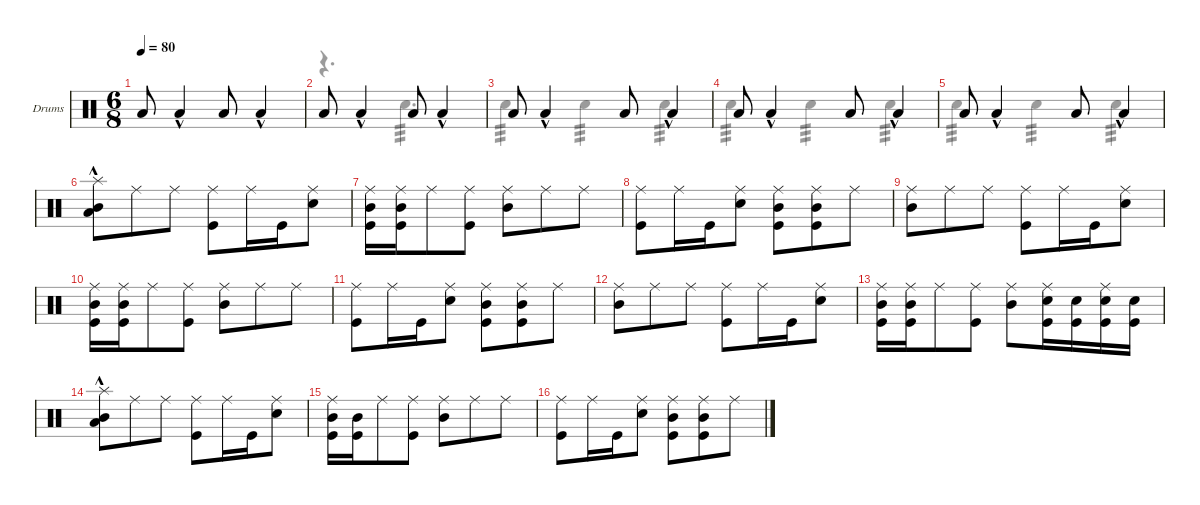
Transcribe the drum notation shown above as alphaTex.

\defaultSystemsLayout 4
\hideDynamics
\bracketExtendMode groupsimilarinstruments
\firstSystemTrackNameOrientation horizontal
\otherSystemsTrackNameOrientation horizontal
\track ("Drumkit" "Drums") {instrument percussion}
\staff {score}
\articulation defaults
\voice
\ts (6 8)
\tempo 80
\clef neutral
\ks c "Low Tom (hit)".8{dy mp} "Low Tom (hit)"{hac}.4 "Low Tom (hit)".8 "Low Tom (hit)"{hac}.4
|
"Low Tom (hit)".8 "Low Tom (hit)"{hac}.4 "Low Tom (hit)".8 "Low Tom (hit)"{hac}.4 |
"Low Tom (hit)".8 "Low Tom (hit)"{hac}.4 "Low Tom (hit)".8 "Low Tom (hit)"{hac}.4 |
"Low Tom (hit)".8 "Low Tom (hit)"{hac}.4 "Low Tom (hit)".8 "Low Tom (hit)"{hac}.4 |
"Low Tom (hit)".8 "Low Tom (hit)"{hac}.4 "Low Tom (hit)".8 "Low Tom (hit)"{hac}.4 |
("Low Tom (hit)"{hac} "Splash (hit)" "Mid Tom (hit)").8{dy mf} "Ride (middle)".8 "Ride (middle)".8 ("Ride (middle)" "Kick (hit)").8 "Ride (middle)".16 "Kick (hit)".16 ("Ride (middle)" "Snare (hit) 2").8 |
("Ride (middle)" "Mid Tom (hit)" "Kick (hit)").16 ("Ride (middle)" "Mid Tom (hit)" "Kick (hit)").16 "Ride (middle)".8 ("Ride (middle)" "Kick (hit)").8 ("Ride (middle)" "Mid Tom (hit)").8 "Ride (middle)".8 "Ride (middle)".8 |
("Ride (middle)" "Kick (hit)").8 "Ride (middle)".16 "Kick (hit)".16 ("Ride (middle)" "Snare (hit) 2").8 ("Ride (middle)" "Mid Tom (hit)" "Kick (hit)").8 ("Ride (middle)" "Mid Tom (hit)" "Kick (hit)").8 "Ride (middle)".8 |
("Ride (middle)" "Mid Tom (hit)").8 "Ride (middle)".8 "Ride (middle)".8 ("Ride (middle)" "Kick (hit)").8 "Ride (middle)".16 "Kick (hit)".16 ("Ride (middle)" "Snare (hit) 2").8 |
("Ride (middle)" "Mid Tom (hit)" "Kick (hit)").16 ("Ride (middle)" "Mid Tom (hit)" "Kick (hit)").16 "Ride (middle)".8 ("Ride (middle)" "Kick (hit)").8 ("Ride (middle)" "Mid Tom (hit)").8 "Ride (middle)".8 "Ride (middle)".8 |
("Ride (middle)" "Kick (hit)").8 "Ride (middle)".16 "Kick (hit)".16 ("Ride (middle)" "Snare (hit) 2").8 ("Ride (middle)" "Mid Tom (hit)" "Kick (hit)").8 ("Ride (middle)" "Mid Tom (hit)" "Kick (hit)").8 "Ride (middle)".8 |
("Ride (middle)" "Mid Tom (hit)").8 "Ride (middle)".8 "Ride (middle)".8 ("Ride (middle)" "Kick (hit)").8 "Ride (middle)".16 "Kick (hit)".16 ("Ride (middle)" "Snare (hit) 2").8 |
("Ride (middle)" "Mid Tom (hit)" "Kick (hit)").16 ("Ride (middle)" "Mid Tom (hit)" "Kick (hit)").16 "Ride (middle)".8 ("Ride (middle)" "Kick (hit)").8 ("Ride (middle)" "Mid Tom (hit)").8 ("Ride (middle)" "Snare (hit) 2" "Kick (hit)").16 ("Snare (hit) 2" "Kick (hit)").16 ("Ride (middle)" "Snare (hit) 2" "Kick (hit)").16 ("Snare (hit) 2" "Kick (hit)").16 |
("Low Tom (hit)"{hac} "Splash (hit)" "Mid Tom (hit)").8 "Ride (middle)".8 "Ride (middle)".8 ("Ride (middle)" "Kick (hit)").8 "Ride (middle)".16 "Kick (hit)".16 ("Ride (middle)" "Snare (hit) 2").8 |
("Ride (middle)" "Mid Tom (hit)" "Kick (hit)").16 ("Mid Tom (hit)" "Kick (hit)").16 "Ride (middle)".8 ("Ride (middle)" "Kick (hit)").8 ("Ride (middle)" "Mid Tom (hit)").8 "Ride (middle)".8 "Ride (middle)".8 |
("Ride (middle)" "Kick (hit)").8 "Ride (middle)".16 "Kick (hit)".16 ("Ride (middle)" "Snare (hit) 2").8 ("Ride (middle)" "Mid Tom (hit)" "Kick (hit)").8 ("Ride (middle)" "Kick (hit)" "Mid Tom (hit)").8 "Ride (middle)".8
\voice
\clef neutral
\ottava regular
\simile none
\ks c
|
r.4{d} "Snare (hit) 2".4{d tp 3} |
"Snare (hit) 2".4{tp 3} "Snare (hit) 2".4{tp 3} "Snare (hit) 2".4{tp 3 dy p} |
"Snare (hit) 2".4{tp 3} "Snare (hit) 2".4{tp 3} "Snare (hit) 2".4{tp 3 dy mp} |
"Snare (hit) 2".4{tp 3} "Snare (hit) 2".4{tp 3} "Snare (hit) 2".4{tp 3 dy mf} |
|
|
|
|
|
|
|
|
|
|
